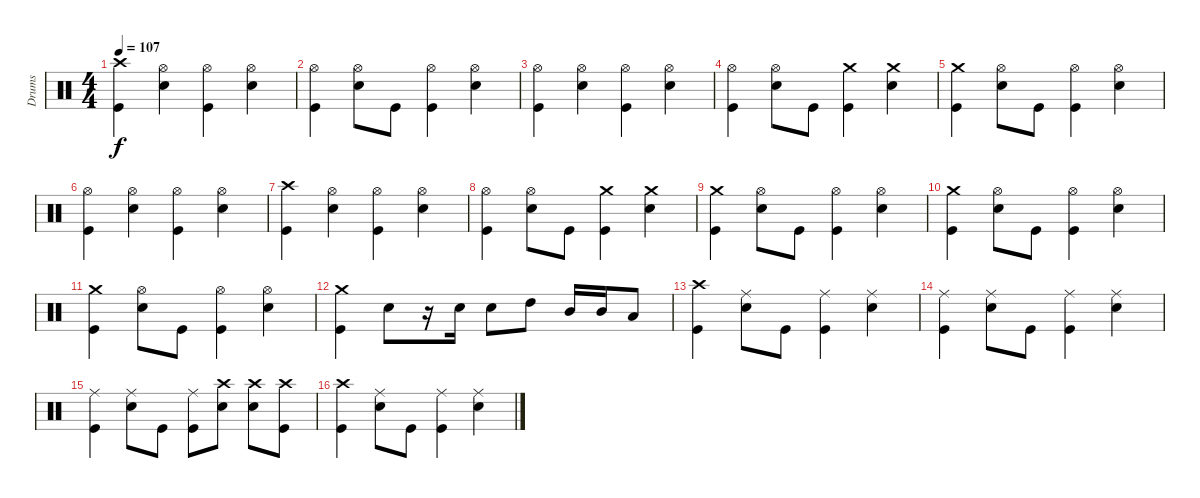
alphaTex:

\track ("Drums" "Drums") {instrument percussion}
\staff {score}
\articulation defaults
\ts (4 4)
\tempo 107
\clef neutral
\ks c
("Crash high (hit)" "Kick (hit)").4{dy f} ("Hi-Hat (open)" "Snare (hit) 2").4 ("Hi-Hat (open)" "Kick (hit)").4 ("Hi-Hat (open)" "Snare (hit) 2").4 |
("Hi-Hat (open)" "Kick (hit)").4 ("Hi-Hat (open)" "Snare (hit) 2").8 "Kick (hit)".8 ("Hi-Hat (open)" "Kick (hit)").4 ("Hi-Hat (open)" "Snare (hit) 2").4 |
("Hi-Hat (open)" "Kick (hit)").4 ("Hi-Hat (open)" "Snare (hit) 2").4 ("Hi-Hat (open)" "Kick (hit)").4 ("Hi-Hat (open)" "Snare (hit) 2").4 |
("Hi-Hat (open)" "Kick (hit)").4 ("Hi-Hat (open)" "Snare (hit) 2").8 "Kick (hit)".8 ("Crash medium (hit)" "Kick (hit)").4 ("Crash medium (hit)" "Snare (hit) 2").4 |
("Crash medium (hit)" "Kick (hit)").4 ("Hi-Hat (open)" "Snare (hit) 2").8 "Kick (hit)".8 ("Hi-Hat (open)" "Kick (hit)").4 ("Hi-Hat (open)" "Snare (hit) 2").4 |
("Hi-Hat (open)" "Kick (hit)").4 ("Hi-Hat (open)" "Snare (hit) 2").4 ("Hi-Hat (open)" "Kick (hit)").4 ("Hi-Hat (open)" "Snare (hit) 2").4 |
("Crash high (hit)" "Kick (hit)").4 ("Hi-Hat (open)" "Snare (hit) 2").4 ("Hi-Hat (open)" "Kick (hit)").4 ("Hi-Hat (open)" "Snare (hit) 2").4 |
("Hi-Hat (open)" "Kick (hit)").4 ("Hi-Hat (open)" "Snare (hit) 2").8 "Kick (hit)".8 ("Crash medium (hit)" "Kick (hit)").4 ("Crash medium (hit)" "Snare (hit) 2").4 |
("Crash medium (hit)" "Kick (hit)").4 ("Hi-Hat (open)" "Snare (hit) 2").8 "Kick (hit)".8 ("Hi-Hat (open)" "Kick (hit)").4 ("Hi-Hat (open)" "Snare (hit) 2").4 |
("Crash medium (hit)" "Kick (hit)").4 ("Hi-Hat (open)" "Snare (hit) 2").8 "Kick (hit)".8 ("Hi-Hat (open)" "Kick (hit)").4 ("Hi-Hat (open)" "Snare (hit) 2").4 |
("Crash medium (hit)" "Kick (hit)").4 ("Hi-Hat (open)" "Snare (hit) 2").8 "Kick (hit)".8 ("Hi-Hat (open)" "Kick (hit)").4 ("Hi-Hat (open)" "Snare (hit) 2").4 |
("Crash medium (hit)" "Kick (hit)").4 "Snare (hit) 2".8 r.16 "Snare (hit) 2".16 "Snare (hit) 2".8 "High Tom (hit)".8 "Mid Tom (hit)".16 "Mid Tom (hit)".16 "Low Tom (hit)".8 |
("Crash high (hit)" "Kick (hit)").4 ("Ride (middle)" "Snare (hit) 2").8 "Kick (hit)".8 ("Ride (middle)" "Kick (hit)").4 ("Ride (middle)" "Snare (hit) 2").4 |
("Ride (middle)" "Kick (hit)").4 ("Ride (middle)" "Snare (hit) 2").8 "Kick (hit)".8 ("Ride (middle)" "Kick (hit)").4 ("Ride (middle)" "Snare (hit) 2").4 |
("Ride (middle)" "Kick (hit)").4 ("Ride (middle)" "Snare (hit) 2").8 "Kick (hit)".8 ("Ride (middle)" "Kick (hit)").8 ("Crash high (hit)" "Snare (hit) 2").8 ("Crash high (hit)" "Snare (hit) 2").8 ("Crash high (hit)" "Kick (hit)").8 |
("Crash high (hit)" "Kick (hit)").4 ("Ride (middle)" "Snare (hit) 2").8 "Kick (hit)".8 ("Ride (middle)" "Kick (hit)").4 ("Ride (middle)" "Snare (hit) 2").4
